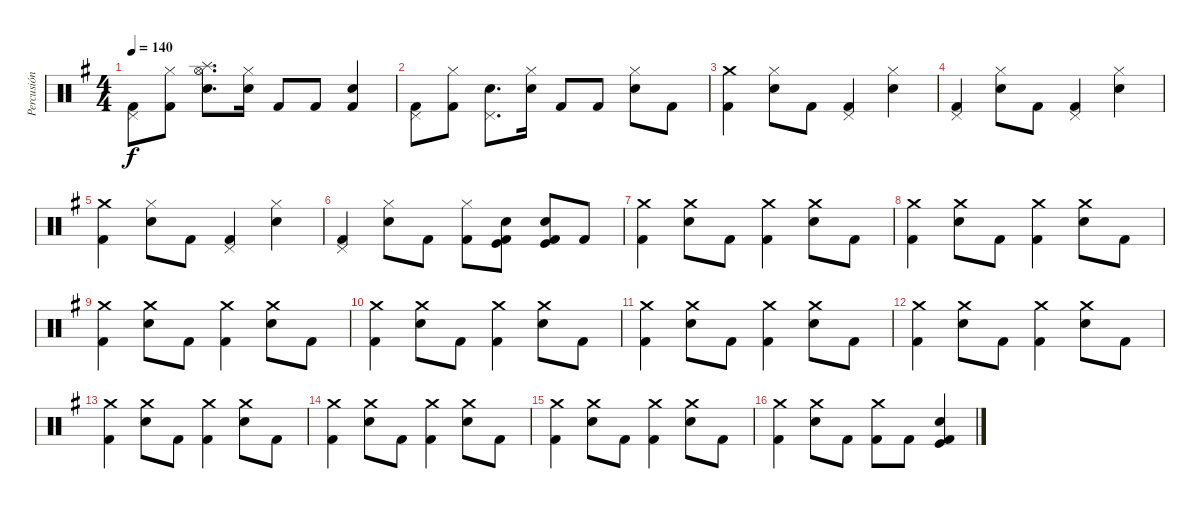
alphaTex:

\track ("Percusión" "Percusión") {instrument percussion}
\staff {score}
\articulation defaults
\ts (4 4)
\tempo 140
\clef neutral
\ks g
("Pedal Hi-Hat (hit)" "Kick (hit) 2").8{dy f} ("Hi-Hat (closed)" "Kick (hit) 2").8 ("Hi-Hat (open)" "Splash (hit)" "Snare (hit) 2").8{d} ("Hi-Hat (closed)" "Snare (hit) 2").16 "Kick (hit) 2".8 "Kick (hit) 2".8 ("Snare (hit) 2" "Kick (hit) 2").4 |
("Pedal Hi-Hat (hit)" "Kick (hit) 2").8 ("Hi-Hat (closed)" "Kick (hit) 2").8 ("Pedal Hi-Hat (hit)" "Snare (hit) 2").8{d} ("Hi-Hat (closed)" "Snare (hit) 2").16 "Kick (hit) 2".8 "Kick (hit) 2".8 ("Hi-Hat (closed)" "Snare (hit) 2").8 "Kick (hit) 2".8 |
("Crash medium (hit)" "Kick (hit) 2").4 ("Hi-Hat (closed)" "Snare (hit) 2").8 "Kick (hit) 2".8 ("Pedal Hi-Hat (hit)" "Kick (hit) 2").4 ("Hi-Hat (closed)" "Snare (hit) 2").4 |
("Pedal Hi-Hat (hit)" "Kick (hit) 2").4 ("Hi-Hat (closed)" "Snare (hit) 2").8 "Kick (hit) 2".8 ("Pedal Hi-Hat (hit)" "Kick (hit) 2").4 ("Hi-Hat (closed)" "Snare (hit) 2").4 |
("Crash medium (hit)" "Kick (hit) 2").4 ("Hi-Hat (closed)" "Snare (hit) 2").8 "Kick (hit) 2".8 ("Pedal Hi-Hat (hit)" "Kick (hit) 2").4 ("Hi-Hat (closed)" "Snare (hit) 2").4 |
("Pedal Hi-Hat (hit)" "Kick (hit) 2").4 ("Hi-Hat (closed)" "Snare (hit) 2").8 "Kick (hit) 2".8 ("Hi-Hat (closed)" "Kick (hit) 2").8 ("Snare (hit) 2" "Kick (hit)" "Kick (hit) 2").8 ("Snare (hit) 2" "Kick (hit)" "Kick (hit) 2").8 "Kick (hit) 2".8 |
("Crash medium (hit)" "Kick (hit) 2").4 ("Crash medium (hit)" "Snare (hit) 2").8 "Kick (hit) 2".8 ("Crash medium (hit)" "Kick (hit) 2").4 ("Crash medium (hit)" "Snare (hit) 2").8 "Kick (hit) 2".8 |
("Crash medium (hit)" "Kick (hit) 2").4 ("Crash medium (hit)" "Snare (hit) 2").8 "Kick (hit) 2".8 ("Crash medium (hit)" "Kick (hit) 2").4 ("Crash medium (hit)" "Snare (hit) 2").8 "Kick (hit) 2".8 |
("Crash medium (hit)" "Kick (hit) 2").4 ("Crash medium (hit)" "Snare (hit) 2").8 "Kick (hit) 2".8 ("Crash medium (hit)" "Kick (hit) 2").4 ("Crash medium (hit)" "Snare (hit) 2").8 "Kick (hit) 2".8 |
("Crash medium (hit)" "Kick (hit) 2").4 ("Crash medium (hit)" "Snare (hit) 2").8 "Kick (hit) 2".8 ("Crash medium (hit)" "Kick (hit) 2").4 ("Crash medium (hit)" "Snare (hit) 2").8 "Kick (hit) 2".8 |
("Crash medium (hit)" "Kick (hit) 2").4 ("Crash medium (hit)" "Snare (hit) 2").8 "Kick (hit) 2".8 ("Crash medium (hit)" "Kick (hit) 2").4 ("Crash medium (hit)" "Snare (hit) 2").8 "Kick (hit) 2".8 |
("Crash medium (hit)" "Kick (hit) 2").4 ("Crash medium (hit)" "Snare (hit) 2").8 "Kick (hit) 2".8 ("Crash medium (hit)" "Kick (hit) 2").4 ("Crash medium (hit)" "Snare (hit) 2").8 "Kick (hit) 2".8 |
("Crash medium (hit)" "Kick (hit) 2").4 ("Crash medium (hit)" "Snare (hit) 2").8 "Kick (hit) 2".8 ("Crash medium (hit)" "Kick (hit) 2").4 ("Crash medium (hit)" "Snare (hit) 2").8 "Kick (hit) 2".8 |
("Crash medium (hit)" "Kick (hit) 2").4 ("Crash medium (hit)" "Snare (hit) 2").8 "Kick (hit) 2".8 ("Crash medium (hit)" "Kick (hit) 2").4 ("Crash medium (hit)" "Snare (hit) 2").8 "Kick (hit) 2".8 |
("Crash medium (hit)" "Kick (hit) 2").4 ("Crash medium (hit)" "Snare (hit) 2").8 "Kick (hit) 2".8 ("Crash medium (hit)" "Kick (hit) 2").4 ("Crash medium (hit)" "Snare (hit) 2").8 "Kick (hit) 2".8 |
("Crash medium (hit)" "Kick (hit) 2").4 ("Crash medium (hit)" "Snare (hit) 2").8 "Kick (hit) 2".8 ("Crash medium (hit)" "Kick (hit) 2").8 "Kick (hit) 2".8 ("Snare (hit) 2" "Kick (hit)" "Kick (hit) 2").4
